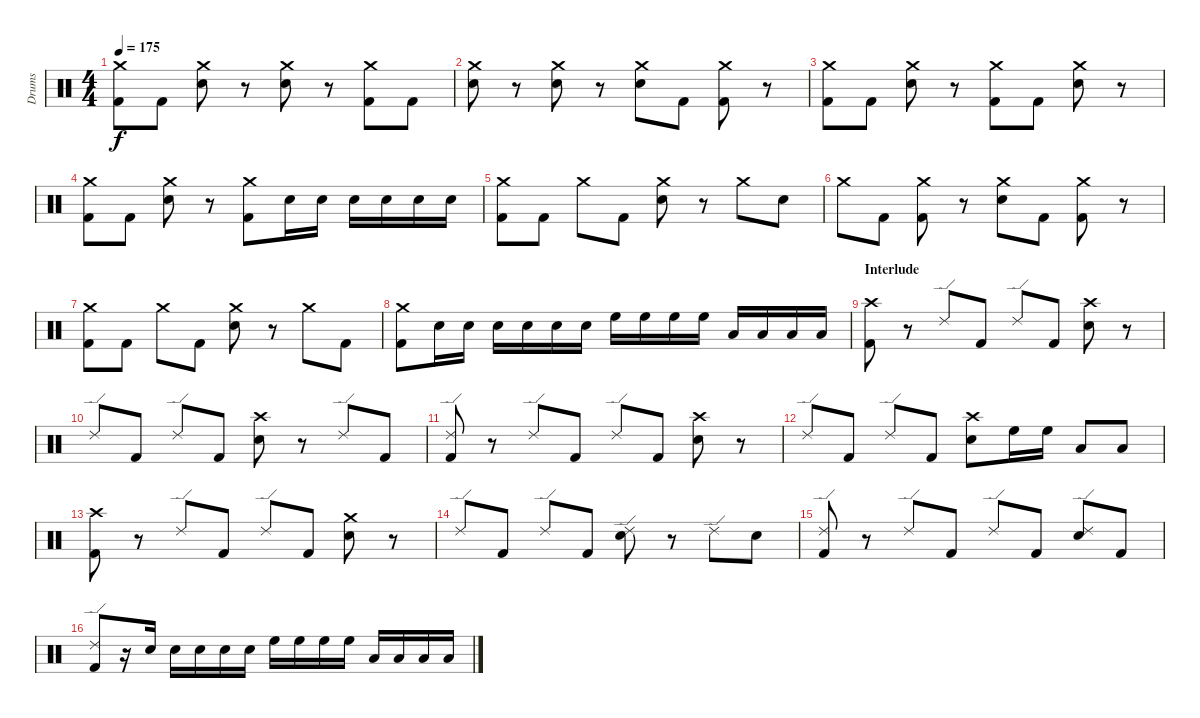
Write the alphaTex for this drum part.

\track ("Drums" "Drums") {instrument percussion}
\staff {score}
\articulation defaults
\ts (4 4)
\tempo 175
\clef neutral
\ks c
("Crash medium (hit)" "Kick (hit) 2").8{dy f} "Kick (hit) 2".8 ("Crash medium (hit)" "Snare (hit) 2").8 r.8 ("Crash medium (hit)" "Snare (hit) 2").8 r.8 ("Crash medium (hit)" "Kick (hit) 2").8 "Kick (hit) 2".8 |
("Crash medium (hit)" "Snare (hit) 2").8 r.8 ("Crash medium (hit)" "Snare (hit) 2").8 r.8 ("Crash medium (hit)" "Snare (hit) 2").8 "Kick (hit) 2".8 ("Crash medium (hit)" "Kick (hit) 2").8 r.8 |
("Crash medium (hit)" "Kick (hit) 2").8 "Kick (hit) 2".8 ("Crash medium (hit)" "Snare (hit) 2").8 r.8 ("Crash medium (hit)" "Kick (hit) 2").8 "Kick (hit) 2".8 ("Crash medium (hit)" "Snare (hit) 2").8 r.8 |
("Crash medium (hit)" "Kick (hit) 2").8 "Kick (hit) 2".8 ("Crash medium (hit)" "Snare (hit) 2").8 r.8 ("Crash medium (hit)" "Kick (hit) 2").8 "Snare (hit) 2".16 "Snare (hit) 2".16 "Snare (hit) 2".16 "Snare (hit) 2".16 "Snare (hit) 2".16 "Snare (hit) 2".16 |
("Crash medium (hit)" "Kick (hit) 2").8 "Kick (hit) 2".8 "Crash medium (hit)".8 "Kick (hit) 2".8 ("Crash medium (hit)" "Snare (hit) 2").8 r.8 "Crash medium (hit)".8 "Snare (hit) 2".8 |
"Crash medium (hit)".8 "Kick (hit) 2".8 ("Crash medium (hit)" "Kick (hit) 2").8 r.8 ("Crash medium (hit)" "Snare (hit) 2").8 "Kick (hit) 2".8 ("Crash medium (hit)" "Kick (hit) 2").8 r.8 |
("Crash medium (hit)" "Kick (hit) 2").8 "Kick (hit) 2".8 "Crash medium (hit)".8 "Kick (hit) 2".8 ("Crash medium (hit)" "Snare (hit) 2").8 r.8 "Crash medium (hit)".8 "Kick (hit) 2".8 |
("Crash medium (hit)" "Kick (hit) 2").8 "Snare (hit) 2".16 "Snare (hit) 2".16 "Snare (hit) 2".16 "Snare (hit) 2".16 "Snare (hit) 2".16 "Snare (hit) 2".16 "High Floor Tom (hit)".16 "High Floor Tom (hit)".16 "High Floor Tom (hit)".16 "High Floor Tom (hit)".16 "Low Floor Tom (hit)".16 "Low Floor Tom (hit)".16 "Low Floor Tom (hit)".16 "Low Floor Tom (hit)".16 |
\section ("" "Interlude")
("Crash high (hit)" "Kick (hit) 2").8 r.8 "Ride (edge) 2".8 "Kick (hit) 2".8 "Ride (edge) 2".8 "Kick (hit) 2".8 ("Crash high (hit)" "Snare (hit) 2").8 r.8 |
"Ride (edge) 2".8 "Kick (hit) 2".8 "Ride (edge) 2".8 "Kick (hit) 2".8 ("Crash high (hit)" "Snare (hit) 2").8 r.8 "Ride (edge) 2".8 "Kick (hit) 2".8 |
("Ride (edge) 2" "Kick (hit) 2").8 r.8 "Ride (edge) 2".8 "Kick (hit) 2".8 "Ride (edge) 2".8 "Kick (hit) 2".8 ("Crash high (hit)" "Snare (hit) 2").8 r.8 |
"Ride (edge) 2".8 "Kick (hit) 2".8 "Ride (edge) 2".8 "Kick (hit) 2".8 ("Crash high (hit)" "Snare (hit) 2").8 "High Floor Tom (hit)".16 "High Floor Tom (hit)".16 "Low Floor Tom (hit)".8 "Low Floor Tom (hit)".8 |
("Crash high (hit)" "Kick (hit) 2").8 r.8 "Ride (edge) 2".8 "Kick (hit) 2".8 "Ride (edge) 2".8 "Kick (hit) 2".8 ("Crash medium (hit)" "Snare (hit) 2").8 r.8 |
"Ride (edge) 2".8 "Kick (hit) 2".8 "Ride (edge) 2".8 "Kick (hit) 2".8 ("Ride (edge) 2" "Snare (hit) 2").8 r.8 "Ride (edge) 2".8 "Snare (hit) 2".8 |
("Ride (edge) 2" "Kick (hit) 2").8 r.8 "Ride (edge) 2".8 "Kick (hit) 2".8 "Ride (edge) 2".8 "Kick (hit) 2".8 ("Ride (edge) 2" "Snare (hit) 2").8 "Kick (hit) 2".8 |
("Ride (edge) 2" "Kick (hit) 2").8 r.16 "Snare (hit) 2".16 "Snare (hit) 2".16 "Snare (hit) 2".16 "Snare (hit) 2".16 "Snare (hit) 2".16 "High Floor Tom (hit)".16 "High Floor Tom (hit)".16 "High Floor Tom (hit)".16 "High Floor Tom (hit)".16 "Low Floor Tom (hit)".16 "Low Floor Tom (hit)".16 "Low Floor Tom (hit)".16 "Low Floor Tom (hit)".16
